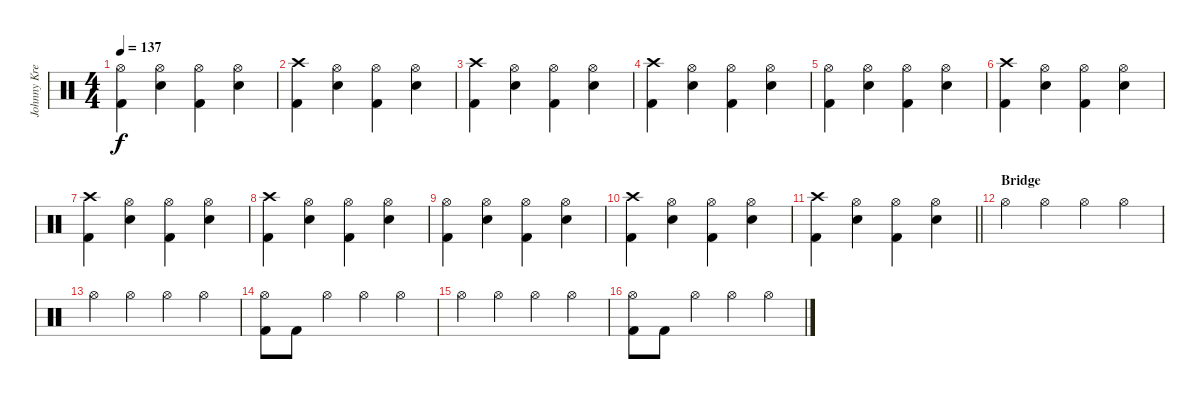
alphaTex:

\track ("Johnny Kreis" "Johnny Kre") {instrument percussion}
\staff {score}
\articulation defaults
\ts (4 4)
\tempo 137
\clef neutral
\ks c
("Hi-Hat (open)" "Kick (hit) 2").4{dy f} ("Hi-Hat (open)" "Snare (hit) 2").4 ("Hi-Hat (open)" "Kick (hit) 2").4 ("Hi-Hat (open)" "Snare (hit) 2").4 |
("Crash high (hit)" "Kick (hit) 2").4 ("Hi-Hat (open)" "Snare (hit) 2").4 ("Hi-Hat (open)" "Kick (hit) 2").4 ("Hi-Hat (open)" "Snare (hit) 2").4 |
("Crash high (hit)" "Kick (hit) 2").4 ("Hi-Hat (open)" "Snare (hit) 2").4 ("Hi-Hat (open)" "Kick (hit) 2").4 ("Hi-Hat (open)" "Snare (hit) 2").4 |
("Crash high (hit)" "Kick (hit) 2").4 ("Hi-Hat (open)" "Snare (hit) 2").4 ("Hi-Hat (open)" "Kick (hit) 2").4 ("Hi-Hat (open)" "Snare (hit) 2").4 |
("Hi-Hat (open)" "Kick (hit) 2").4 ("Hi-Hat (open)" "Snare (hit) 2").4 ("Hi-Hat (open)" "Kick (hit) 2").4 ("Hi-Hat (open)" "Snare (hit) 2").4 |
("Crash high (hit)" "Kick (hit) 2").4 ("Hi-Hat (open)" "Snare (hit) 2").4 ("Hi-Hat (open)" "Kick (hit) 2").4 ("Hi-Hat (open)" "Snare (hit) 2").4 |
("Crash high (hit)" "Kick (hit) 2").4 ("Hi-Hat (open)" "Snare (hit) 2").4 ("Hi-Hat (open)" "Kick (hit) 2").4 ("Hi-Hat (open)" "Snare (hit) 2").4 |
("Crash high (hit)" "Kick (hit) 2").4 ("Hi-Hat (open)" "Snare (hit) 2").4 ("Hi-Hat (open)" "Kick (hit) 2").4 ("Hi-Hat (open)" "Snare (hit) 2").4 |
("Hi-Hat (open)" "Kick (hit) 2").4 ("Hi-Hat (open)" "Snare (hit) 2").4 ("Hi-Hat (open)" "Kick (hit) 2").4 ("Hi-Hat (open)" "Snare (hit) 2").4 |
("Crash high (hit)" "Kick (hit) 2").4 ("Hi-Hat (open)" "Snare (hit) 2").4 ("Hi-Hat (open)" "Kick (hit) 2").4 ("Hi-Hat (open)" "Snare (hit) 2").4 |
\barLineRight lightlight
("Crash high (hit)" "Kick (hit) 2").4 ("Hi-Hat (open)" "Snare (hit) 2").4 ("Hi-Hat (open)" "Kick (hit) 2").4 ("Hi-Hat (open)" "Snare (hit) 2").4 |
\section ("" "Bridge")
"Hi-Hat (open)".4 "Hi-Hat (open)".4 "Hi-Hat (open)".4 "Hi-Hat (open)".4 |
"Hi-Hat (open)".4 "Hi-Hat (open)".4 "Hi-Hat (open)".4 "Hi-Hat (open)".4 |
("Hi-Hat (open)" "Kick (hit) 2").8 "Kick (hit) 2".8 "Hi-Hat (open)".4 "Hi-Hat (open)".4 "Hi-Hat (open)".4 |
"Hi-Hat (open)".4 "Hi-Hat (open)".4 "Hi-Hat (open)".4 "Hi-Hat (open)".4 |
("Hi-Hat (open)" "Kick (hit) 2").8 "Kick (hit) 2".8 "Hi-Hat (open)".4 "Hi-Hat (open)".4 "Hi-Hat (open)".4
